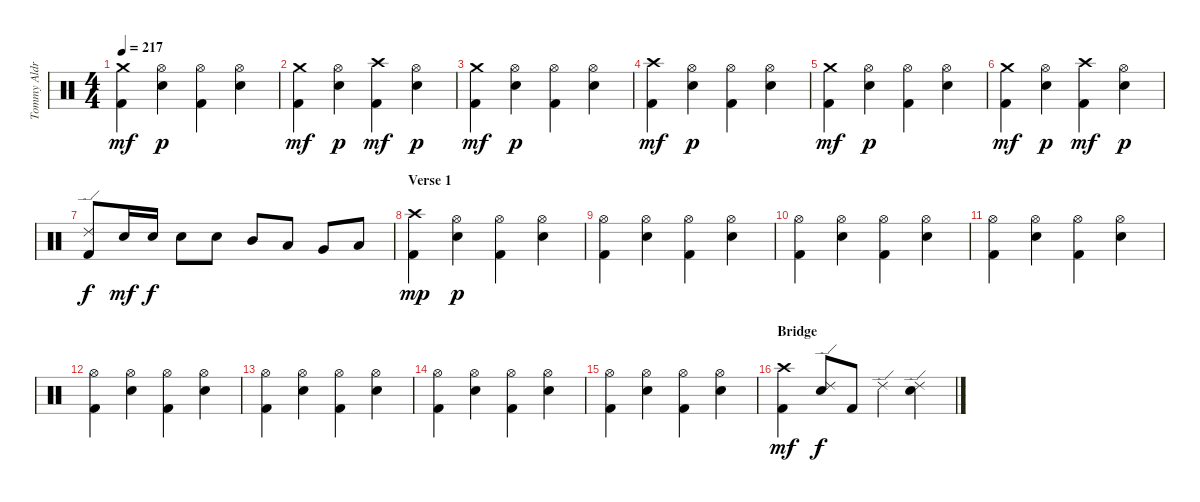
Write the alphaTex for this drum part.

\track ("Tommy Aldridge" "Tommy Aldr") {instrument percussion}
\staff {score}
\articulation defaults
\ts (4 4)
\tempo 217
\clef neutral
\ks c
("Kick (hit) 2" "Crash medium (hit)").4{dy mf} ("Hi-Hat (open)" "Snare (hit) 2").4{dy p} ("Kick (hit) 2" "Hi-Hat (open)").4 ("Hi-Hat (open)" "Snare (hit) 2").4 |
("Kick (hit) 2" "Crash medium (hit)").4{dy mf} ("Hi-Hat (open)" "Snare (hit) 2").4{dy p} ("Kick (hit) 2" "Crash high (hit)").4{dy mf} ("Hi-Hat (open)" "Snare (hit) 2").4{dy p} |
("Kick (hit) 2" "Crash medium (hit)").4{dy mf} ("Hi-Hat (open)" "Snare (hit) 2").4{dy p} ("Kick (hit) 2" "Hi-Hat (open)").4 ("Hi-Hat (open)" "Snare (hit) 2").4 |
("Kick (hit) 2" "Crash high (hit)").4{dy mf} ("Hi-Hat (open)" "Snare (hit) 2").4{dy p} ("Kick (hit) 2" "Hi-Hat (open)").4 ("Hi-Hat (open)" "Snare (hit) 2").4 |
("Kick (hit) 2" "Crash medium (hit)").4{dy mf} ("Hi-Hat (open)" "Snare (hit) 2").4{dy p} ("Kick (hit) 2" "Hi-Hat (open)").4 ("Hi-Hat (open)" "Snare (hit) 2").4 |
("Kick (hit) 2" "Crash medium (hit)").4{dy mf} ("Hi-Hat (open)" "Snare (hit) 2").4{dy p} ("Kick (hit) 2" "Crash high (hit)").4{dy mf} ("Hi-Hat (open)" "Snare (hit) 2").4{dy p} |
("Kick (hit) 2" "Ride (edge) 2").8{dy f} "Snare (hit) 2".16{dy mf} "Snare (hit) 2".16{dy f} "Snare (hit) 2".8 "Snare (hit) 2".8 "Mid Tom (hit)".8 "Low Tom (hit)".8 "Very Low Tom (hit)".8 "Low Floor Tom (hit)".8 |
\section ("" "Verse 1")
("Kick (hit) 2" "Crash high (hit)").4{dy mp} ("Hi-Hat (open)" "Snare (hit) 2").4{dy p} ("Kick (hit) 2" "Hi-Hat (open)").4 ("Hi-Hat (open)" "Snare (hit) 2").4 |
("Kick (hit) 2" "Hi-Hat (open)").4 ("Hi-Hat (open)" "Snare (hit) 2").4 ("Kick (hit) 2" "Hi-Hat (open)").4 ("Hi-Hat (open)" "Snare (hit) 2").4 |
("Kick (hit) 2" "Hi-Hat (open)").4 ("Hi-Hat (open)" "Snare (hit) 2").4 ("Kick (hit) 2" "Hi-Hat (open)").4 ("Hi-Hat (open)" "Snare (hit) 2").4 |
("Kick (hit) 2" "Hi-Hat (open)").4 ("Hi-Hat (open)" "Snare (hit) 2").4 ("Kick (hit) 2" "Hi-Hat (open)").4 ("Hi-Hat (open)" "Snare (hit) 2").4 |
("Kick (hit) 2" "Hi-Hat (open)").4 ("Hi-Hat (open)" "Snare (hit) 2").4 ("Kick (hit) 2" "Hi-Hat (open)").4 ("Hi-Hat (open)" "Snare (hit) 2").4 |
("Kick (hit) 2" "Hi-Hat (open)").4 ("Hi-Hat (open)" "Snare (hit) 2").4 ("Kick (hit) 2" "Hi-Hat (open)").4 ("Hi-Hat (open)" "Snare (hit) 2").4 |
("Kick (hit) 2" "Hi-Hat (open)").4 ("Hi-Hat (open)" "Snare (hit) 2").4 ("Kick (hit) 2" "Hi-Hat (open)").4 ("Hi-Hat (open)" "Snare (hit) 2").4 |
("Kick (hit) 2" "Hi-Hat (open)").4 ("Hi-Hat (open)" "Snare (hit) 2").4 ("Kick (hit) 2" "Hi-Hat (open)").4 ("Hi-Hat (open)" "Snare (hit) 2").4 |
\section ("" "Bridge")
("Kick (hit) 2" "Crash high (hit)").4{dy mf} ("Ride (edge) 2" "Snare (hit) 2").8{dy f} "Kick (hit) 2".8 "Ride (edge) 2".4 ("Ride (edge) 2" "Snare (hit) 2").4
